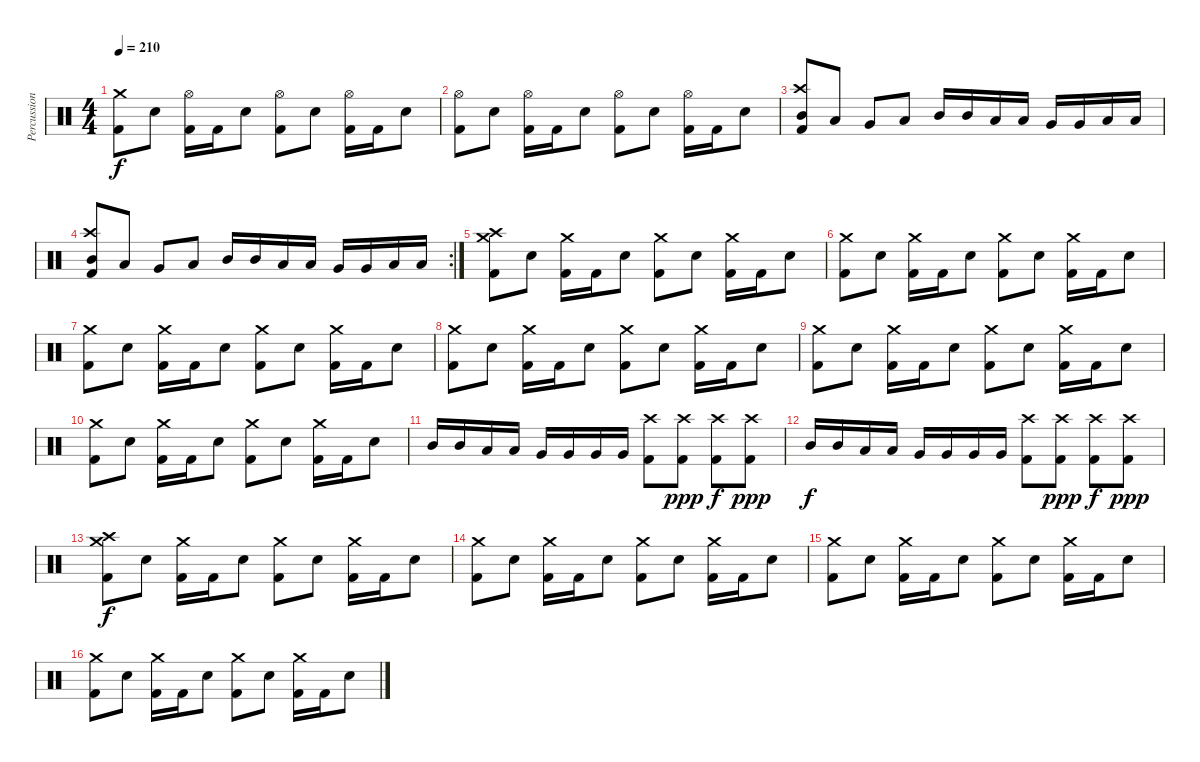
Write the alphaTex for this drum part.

\track ("Percussion" "Percussion") {instrument percussion}
\staff {score}
\articulation defaults
\ts (4 4)
\tempo 210
\clef neutral
\ks c
("Crash medium (hit)" "Kick (hit) 2").8{dy f} "Electric Snare (hit)".8 ("Hi-Hat (open)" "Kick (hit) 2").16 "Kick (hit) 2".16 "Electric Snare (hit)".8 ("Hi-Hat (open)" "Kick (hit) 2").8 "Electric Snare (hit)".8 ("Hi-Hat (open)" "Kick (hit) 2").16 "Kick (hit) 2".16 "Electric Snare (hit)".8 |
("Hi-Hat (open)" "Kick (hit) 2").8 "Electric Snare (hit)".8 ("Hi-Hat (open)" "Kick (hit) 2").16 "Kick (hit) 2".16 "Electric Snare (hit)".8 ("Hi-Hat (open)" "Kick (hit) 2").8 "Electric Snare (hit)".8 ("Hi-Hat (open)" "Kick (hit) 2").16 "Kick (hit) 2".16 "Electric Snare (hit)".8 |
("Crash high (hit)" "Mid Tom (hit)" "Kick (hit) 2").8 "Low Tom (hit)".8 "Very Low Tom (hit)".8 "Low Floor Tom (hit)".8 "Mid Tom (hit)".16 "Mid Tom (hit)".16 "Low Tom (hit)".16 "Low Tom (hit)".16 "Very Low Tom (hit)".16 "Very Low Tom (hit)".16 "Low Floor Tom (hit)".16 "Low Floor Tom (hit)".16 |
\rc 2
("Crash high (hit)" "Mid Tom (hit)" "Kick (hit) 2").8 "Low Tom (hit)".8 "Very Low Tom (hit)".8 "Low Floor Tom (hit)".8 "Mid Tom (hit)".16 "Mid Tom (hit)".16 "Low Tom (hit)".16 "Low Tom (hit)".16 "Very Low Tom (hit)".16 "Very Low Tom (hit)".16 "Low Floor Tom (hit)".16 "Low Floor Tom (hit)".16 |
("Crash medium (hit)" "Crash high (hit)" "Kick (hit) 2").8 "Electric Snare (hit)".8 ("Crash medium (hit)" "Kick (hit) 2").16 "Kick (hit) 2".16 "Electric Snare (hit)".8 ("Crash medium (hit)" "Kick (hit) 2").8 "Electric Snare (hit)".8 ("Crash medium (hit)" "Kick (hit) 2").16 "Kick (hit) 2".16 "Electric Snare (hit)".8 |
("Crash medium (hit)" "Kick (hit) 2").8 "Electric Snare (hit)".8 ("Crash medium (hit)" "Kick (hit) 2").16 "Kick (hit) 2".16 "Electric Snare (hit)".8 ("Crash medium (hit)" "Kick (hit) 2").8 "Electric Snare (hit)".8 ("Crash medium (hit)" "Kick (hit) 2").16 "Kick (hit) 2".16 "Electric Snare (hit)".8 |
("Crash medium (hit)" "Kick (hit) 2").8 "Electric Snare (hit)".8 ("Crash medium (hit)" "Kick (hit) 2").16 "Kick (hit) 2".16 "Electric Snare (hit)".8 ("Crash medium (hit)" "Kick (hit) 2").8 "Electric Snare (hit)".8 ("Crash medium (hit)" "Kick (hit) 2").16 "Kick (hit) 2".16 "Electric Snare (hit)".8 |
("Crash medium (hit)" "Kick (hit) 2").8 "Electric Snare (hit)".8 ("Crash medium (hit)" "Kick (hit) 2").16 "Kick (hit) 2".16 "Electric Snare (hit)".8 ("Crash medium (hit)" "Kick (hit) 2").8 "Electric Snare (hit)".8 ("Crash medium (hit)" "Kick (hit) 2").16 "Kick (hit) 2".16 "Electric Snare (hit)".8 |
("Crash medium (hit)" "Kick (hit) 2").8 "Electric Snare (hit)".8 ("Crash medium (hit)" "Kick (hit) 2").16 "Kick (hit) 2".16 "Electric Snare (hit)".8 ("Crash medium (hit)" "Kick (hit) 2").8 "Electric Snare (hit)".8 ("Crash medium (hit)" "Kick (hit) 2").16 "Kick (hit) 2".16 "Electric Snare (hit)".8 |
("Crash medium (hit)" "Kick (hit) 2").8 "Electric Snare (hit)".8 ("Crash medium (hit)" "Kick (hit) 2").16 "Kick (hit) 2".16 "Electric Snare (hit)".8 ("Crash medium (hit)" "Kick (hit) 2").8 "Electric Snare (hit)".8 ("Crash medium (hit)" "Kick (hit) 2").16 "Kick (hit) 2".16 "Electric Snare (hit)".8 |
"Mid Tom (hit)".16 "Mid Tom (hit)".16 "Low Tom (hit)".16 "Low Tom (hit)".16 "Very Low Tom (hit)".16 "Very Low Tom (hit)".16 "Very Low Tom (hit)".16 "Very Low Tom (hit)".16 ("Crash high (hit)" "Kick (hit) 2").8 ("Crash high (hit)" "Kick (hit) 2").8{dy ppp} ("Crash high (hit)" "Kick (hit) 2").8{dy f} ("Crash high (hit)" "Kick (hit) 2").8{dy ppp} |
"Mid Tom (hit)".16{dy f} "Mid Tom (hit)".16 "Low Tom (hit)".16 "Low Tom (hit)".16 "Very Low Tom (hit)".16 "Very Low Tom (hit)".16 "Very Low Tom (hit)".16 "Very Low Tom (hit)".16 ("Crash high (hit)" "Kick (hit) 2").8 ("Crash high (hit)" "Kick (hit) 2").8{dy ppp} ("Crash high (hit)" "Kick (hit) 2").8{dy f} ("Crash high (hit)" "Kick (hit) 2").8{dy ppp} |
("Crash medium (hit)" "Crash high (hit)" "Kick (hit) 2").8{dy f} "Electric Snare (hit)".8 ("Crash medium (hit)" "Kick (hit) 2").16 "Kick (hit) 2".16 "Electric Snare (hit)".8 ("Crash medium (hit)" "Kick (hit) 2").8 "Electric Snare (hit)".8 ("Crash medium (hit)" "Kick (hit) 2").16 "Kick (hit) 2".16 "Electric Snare (hit)".8 |
("Crash medium (hit)" "Kick (hit) 2").8 "Electric Snare (hit)".8 ("Crash medium (hit)" "Kick (hit) 2").16 "Kick (hit) 2".16 "Electric Snare (hit)".8 ("Crash medium (hit)" "Kick (hit) 2").8 "Electric Snare (hit)".8 ("Crash medium (hit)" "Kick (hit) 2").16 "Kick (hit) 2".16 "Electric Snare (hit)".8 |
("Crash medium (hit)" "Kick (hit) 2").8 "Electric Snare (hit)".8 ("Crash medium (hit)" "Kick (hit) 2").16 "Kick (hit) 2".16 "Electric Snare (hit)".8 ("Crash medium (hit)" "Kick (hit) 2").8 "Electric Snare (hit)".8 ("Crash medium (hit)" "Kick (hit) 2").16 "Kick (hit) 2".16 "Electric Snare (hit)".8 |
("Crash medium (hit)" "Kick (hit) 2").8 "Electric Snare (hit)".8 ("Crash medium (hit)" "Kick (hit) 2").16 "Kick (hit) 2".16 "Electric Snare (hit)".8 ("Crash medium (hit)" "Kick (hit) 2").8 "Electric Snare (hit)".8 ("Crash medium (hit)" "Kick (hit) 2").16 "Kick (hit) 2".16 "Electric Snare (hit)".8
